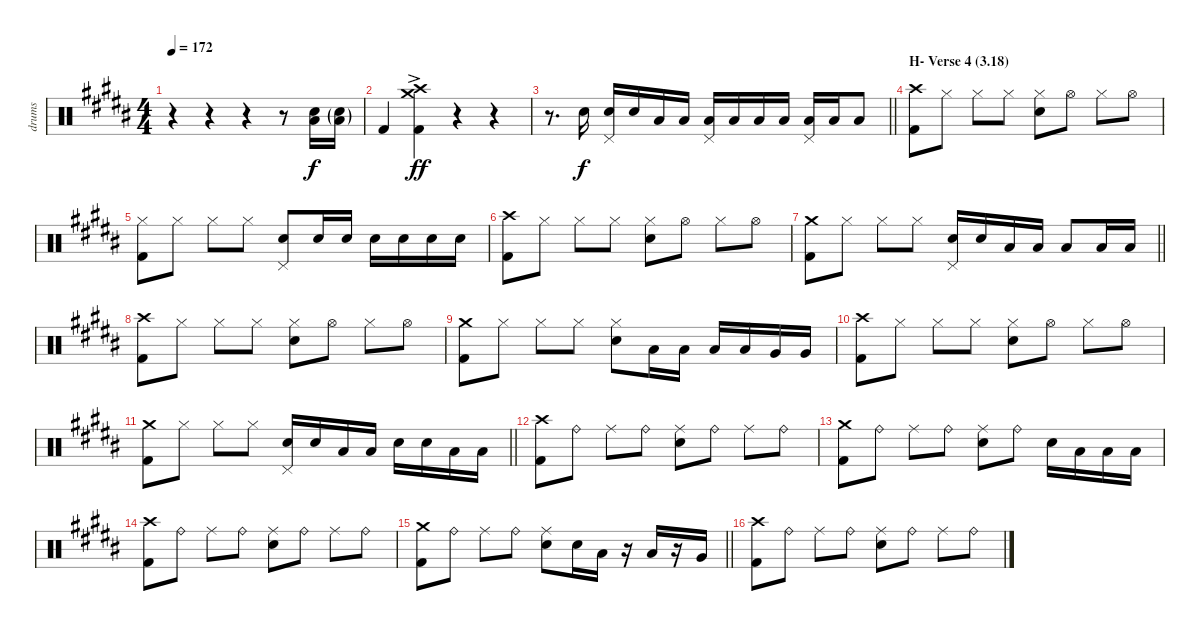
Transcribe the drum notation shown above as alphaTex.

\track ("drums" "drums") {instrument percussion}
\staff {score}
\articulation defaults
\ts (4 4)
\tempo 172
\clef neutral
\ks g#minor
r.4{dy f} r.4 r.4 r.8 ("Low Tom (hit)" "Electric Snare (hit)").16 ("Low Tom (hit)"{g} "Electric Snare (hit)"{g}).16 |
"Kick (hit) 2".4 ("Crash high (hit)"{ac} "Crash medium (hit)"{ac} "Kick (hit) 2"{ac}).4{dy ff} r.4 r.4 |
\barLineRight lightlight
r.8{d} "Electric Snare (hit)".16{dy f} ("Pedal Hi-Hat (hit)" "Electric Snare (hit)").16 "Electric Snare (hit)".16 "Low Tom (hit)".16 "Low Tom (hit)".16 ("Pedal Hi-Hat (hit)" "Low Tom (hit)").16 "Low Tom (hit)".16 "Low Tom (hit)".16 "Low Tom (hit)".16 ("Pedal Hi-Hat (hit)" "Low Tom (hit)").16 "Low Tom (hit)".16 "Low Tom (hit)".8 |
\section ("" "H- Verse 4 (3.18)")
\ks b
("Crash high (hit)" "Kick (hit) 2").8 "Hi-Hat (closed)".8 "Hi-Hat (closed)".8 "Hi-Hat (closed)".8 ("Hi-Hat (closed)" "Electric Snare (hit)").8 "Hi-Hat (open)".8 "Hi-Hat (closed)".8 "Hi-Hat (open)".8 |
\ks g#minor
("Hi-Hat (closed)" "Kick (hit) 2").8 "Hi-Hat (closed)".8 "Hi-Hat (closed)".8 "Hi-Hat (closed)".8 ("Pedal Hi-Hat (hit)" "Electric Snare (hit)").8 "Electric Snare (hit)".16 "Electric Snare (hit)".16 "Electric Snare (hit)".16 "Electric Snare (hit)".16 "Electric Snare (hit)".16 "Electric Snare (hit)".16 |
\ks b
("Crash high (hit)" "Kick (hit) 2").8 "Hi-Hat (closed)".8 "Hi-Hat (closed)".8 "Hi-Hat (closed)".8 ("Hi-Hat (closed)" "Electric Snare (hit)").8 "Hi-Hat (open)".8 "Hi-Hat (closed)".8 "Hi-Hat (open)".8 |
\barLineRight lightlight
\ks g#minor
("Crash medium (hit)" "Kick (hit) 2").8 "Hi-Hat (closed)".8 "Hi-Hat (closed)".8 "Hi-Hat (closed)".8 ("Pedal Hi-Hat (hit)" "Electric Snare (hit)").16 "Electric Snare (hit)".16 "Low Tom (hit)".16 "Low Tom (hit)".16 "Low Tom (hit)".8 "Low Tom (hit)".16 "Low Tom (hit)".16 |
\ks b
("Crash high (hit)" "Kick (hit) 2").8 "Hi-Hat (closed)".8 "Hi-Hat (closed)".8 "Hi-Hat (closed)".8 ("Hi-Hat (closed)" "Electric Snare (hit)").8 "Hi-Hat (open)".8 "Hi-Hat (closed)".8 "Hi-Hat (open)".8 |
\ks g#minor
("Crash medium (hit)" "Kick (hit) 2").8 "Hi-Hat (closed)".8 "Hi-Hat (closed)".8 "Hi-Hat (closed)".8 ("Hi-Hat (closed)" "Electric Snare (hit)").8 "Low Tom (hit)".16 "Low Tom (hit)".16 "Low Tom (hit)".16 "Low Tom (hit)".16 "Very Low Tom (hit)".16 "Very Low Tom (hit)".16 |
\ks b
("Crash high (hit)" "Kick (hit) 2").8 "Hi-Hat (closed)".8 "Hi-Hat (closed)".8 "Hi-Hat (closed)".8 ("Hi-Hat (closed)" "Electric Snare (hit)").8 "Hi-Hat (open)".8 "Hi-Hat (closed)".8 "Hi-Hat (open)".8 |
\barLineRight lightlight
\ks g#minor
("Crash medium (hit)" "Kick (hit) 2").8 "Hi-Hat (closed)".8 "Hi-Hat (closed)".8 "Hi-Hat (closed)".8 ("Pedal Hi-Hat (hit)" "Electric Snare (hit)").16 "Electric Snare (hit)".16 "Low Tom (hit)".16 "Low Tom (hit)".16 "Electric Snare (hit)".16 "Electric Snare (hit)".16 "Low Tom (hit)".16 "Low Tom (hit)".16 |
\ks b
("Crash high (hit)" "Kick (hit) 2").8 "Ride (bell)".8 "Ride (middle)".8 "Ride (bell)".8 ("Ride (middle)" "Electric Snare (hit)").8 "Ride (bell)".8 "Ride (middle)".8 "Ride (bell)".8 |
\ks g#minor
("Crash medium (hit)" "Kick (hit) 2").8 "Ride (bell)".8 "Ride (middle)".8 "Ride (bell)".8 ("Ride (middle)" "Electric Snare (hit)").8 "Ride (bell)".8 "Electric Snare (hit)".16 "Low Tom (hit)".16 "Low Tom (hit)".16 "Low Tom (hit)".16 |
\ks b
("Crash high (hit)" "Kick (hit) 2").8 "Ride (bell)".8 "Ride (middle)".8 "Ride (bell)".8 ("Ride (middle)" "Electric Snare (hit)").8 "Ride (bell)".8 "Ride (middle)".8 "Ride (bell)".8 |
\barLineRight lightlight
\ks g#minor
("Crash medium (hit)" "Kick (hit) 2").8 "Ride (bell)".8 "Ride (middle)".8 "Ride (bell)".8 ("Ride (middle)" "Electric Snare (hit)").8 "Electric Snare (hit)".16 "Low Tom (hit)".16 r.16 "Low Tom (hit)".16 r.16 "Very Low Tom (hit)".16 |
\ks b
("Crash high (hit)" "Kick (hit) 2").8 "Ride (bell)".8 "Ride (middle)".8 "Ride (bell)".8 ("Ride (middle)" "Electric Snare (hit)").8 "Ride (bell)".8 "Ride (middle)".8 "Ride (bell)".8
